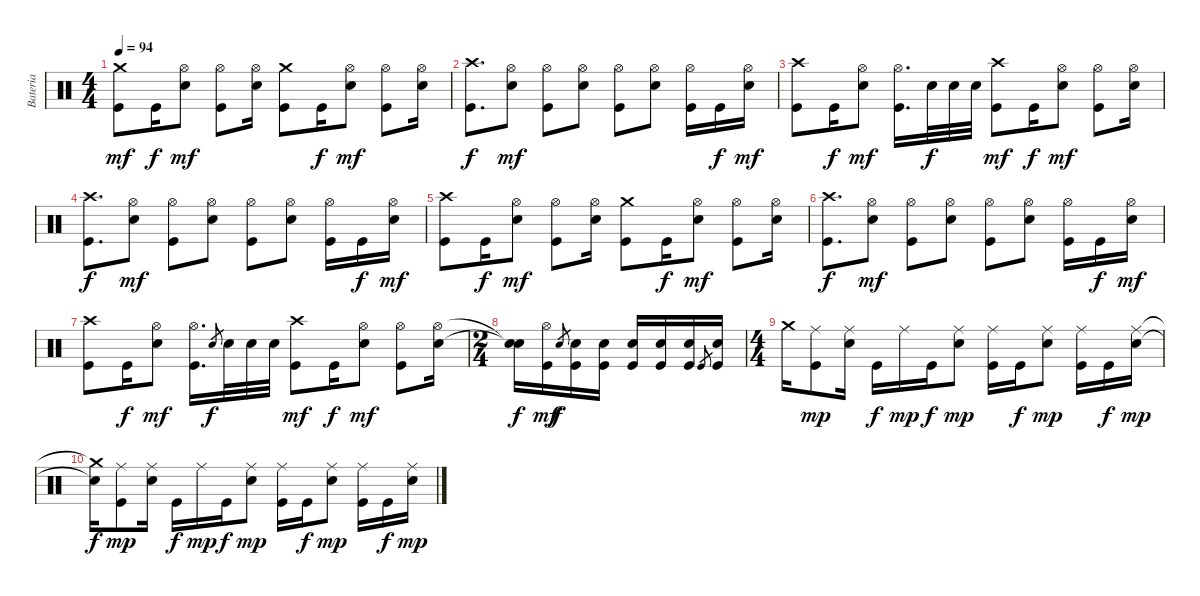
\track ("Bateria" "Bateria") {instrument percussion}
\staff {score}
\articulation defaults
\ts (4 4)
\tempo 94
\clef neutral
\ks c
("Crash medium (hit)" "Kick (hit)").8{dy mf} "Kick (hit)".16{dy f} ("Hi-Hat (open)" "Snare (hit) 2").8{dy mf} ("Hi-Hat (open)" "Kick (hit)").8 ("Hi-Hat (open)" "Snare (hit) 2").16 ("Crash medium (hit)" "Kick (hit)").8 "Kick (hit)".16{dy f} ("Hi-Hat (open)" "Snare (hit) 2").8{dy mf} ("Hi-Hat (open)" "Kick (hit)").8 ("Hi-Hat (open)" "Snare (hit) 2").16 |
("Crash high (hit)" "Kick (hit)").8{d dy f} ("Hi-Hat (open)" "Snare (hit) 2").8{dy mf} ("Hi-Hat (open)" "Kick (hit)").8 ("Hi-Hat (open)" "Snare (hit) 2").8 ("Hi-Hat (open)" "Kick (hit)").8 ("Hi-Hat (open)" "Snare (hit) 2").8 ("Hi-Hat (open)" "Kick (hit)").16 "Kick (hit)".16{dy f} ("Hi-Hat (open)" "Snare (hit) 2").16{dy mf} |
("Crash high (hit)" "Kick (hit)").8 "Kick (hit)".16{dy f} ("Hi-Hat (open)" "Snare (hit) 2").8{dy mf} ("Hi-Hat (open)" "Kick (hit)").16{d} "Snare (hit) 2".32{dy f} "Snare (hit) 2".32 "Snare (hit) 2".32 ("Crash high (hit)" "Kick (hit)").8{dy mf} "Kick (hit)".16{dy f} ("Hi-Hat (open)" "Snare (hit) 2").8{dy mf} ("Hi-Hat (open)" "Kick (hit)").8 ("Hi-Hat (open)" "Snare (hit) 2").16 |
("Crash high (hit)" "Kick (hit)").8{d dy f} ("Hi-Hat (open)" "Snare (hit) 2").8{dy mf} ("Hi-Hat (open)" "Kick (hit)").8 ("Hi-Hat (open)" "Snare (hit) 2").8 ("Hi-Hat (open)" "Kick (hit)").8 ("Hi-Hat (open)" "Snare (hit) 2").8 ("Hi-Hat (open)" "Kick (hit)").16 "Kick (hit)".16{dy f} ("Hi-Hat (open)" "Snare (hit) 2").16{dy mf} |
("Crash high (hit)" "Kick (hit)").8 "Kick (hit)".16{dy f} ("Hi-Hat (open)" "Snare (hit) 2").8{dy mf} ("Hi-Hat (open)" "Kick (hit)").8 ("Hi-Hat (open)" "Snare (hit) 2").16 ("Crash medium (hit)" "Kick (hit)").8 "Kick (hit)".16{dy f} ("Hi-Hat (open)" "Snare (hit) 2").8{dy mf} ("Hi-Hat (open)" "Kick (hit)").8 ("Hi-Hat (open)" "Snare (hit) 2").16 |
("Crash high (hit)" "Kick (hit)").8{d dy f} ("Hi-Hat (open)" "Snare (hit) 2").8{dy mf} ("Hi-Hat (open)" "Kick (hit)").8 ("Hi-Hat (open)" "Snare (hit) 2").8 ("Hi-Hat (open)" "Kick (hit)").8 ("Hi-Hat (open)" "Snare (hit) 2").8 ("Hi-Hat (open)" "Kick (hit)").16 "Kick (hit)".16{dy f} ("Hi-Hat (open)" "Snare (hit) 2").16{dy mf} |
("Crash high (hit)" "Kick (hit)").8 "Kick (hit)".16{dy f} ("Hi-Hat (open)" "Snare (hit) 2").8{dy mf} ("Hi-Hat (open)" "Kick (hit)").16{d} "Snare (hit) 2".8{gr dy f} "Snare (hit) 2".32 "Snare (hit) 2".32 "Snare (hit) 2".32 ("Crash high (hit)" "Kick (hit)").8{dy mf} "Kick (hit)".16{dy f} ("Hi-Hat (open)" "Snare (hit) 2").8{dy mf} ("Hi-Hat (open)" "Kick (hit)").8 ("Hi-Hat (open)" "Snare (hit) 2").16 |
\ts (2 4)
("Snare (hit)"{t} "Snare (hit)"{t}).16{dy f} ("Hi-Hat (open)" "Kick (hit)").16{dy mf} "Snare (hit) 2".8{gr dy f} ("Snare (hit) 2" "Kick (hit)").16 ("Snare (hit) 2" "Kick (hit)").16 ("Snare (hit) 2" "Kick (hit)").16 ("Snare (hit) 2" "Kick (hit)").16 ("Snare (hit) 2" "Kick (hit)").16 "Kick (hit)".8{gr} ("Snare (hit) 2" "Kick (hit)").16 |
\ts (4 4)
"Crash medium (hit)".16 ("Ride (middle)" "Kick (hit)").8{dy mp} ("Ride (middle)" "Snare (hit) 2").16 "Kick (hit)".16{dy f} "Ride (middle)".16{dy mp} "Kick (hit)".16{dy f} ("Ride (middle)" "Snare (hit) 2").8{dy mp} ("Ride (middle)" "Kick (hit)").16 "Kick (hit)".16{dy f} ("Ride (middle)" "Snare (hit) 2").8{dy mp} ("Ride (middle)" "Kick (hit)").16 "Kick (hit)".16{dy f} ("Ride (middle)" "Snare (hit) 2").16{dy mp} |
("Crash medium (hit)"{t} "Snare (hit)"{t}).16{dy f} ("Ride (middle)" "Kick (hit)").8{dy mp} ("Ride (middle)" "Snare (hit) 2").16 "Kick (hit)".16{dy f} "Ride (middle)".16{dy mp} "Kick (hit)".16{dy f} ("Ride (middle)" "Snare (hit) 2").8{dy mp} ("Ride (middle)" "Kick (hit)").16 "Kick (hit)".16{dy f} ("Ride (middle)" "Snare (hit) 2").8{dy mp} ("Ride (middle)" "Kick (hit)").16 "Kick (hit)".16{dy f} ("Ride (middle)" "Snare (hit) 2").16{dy mp}
